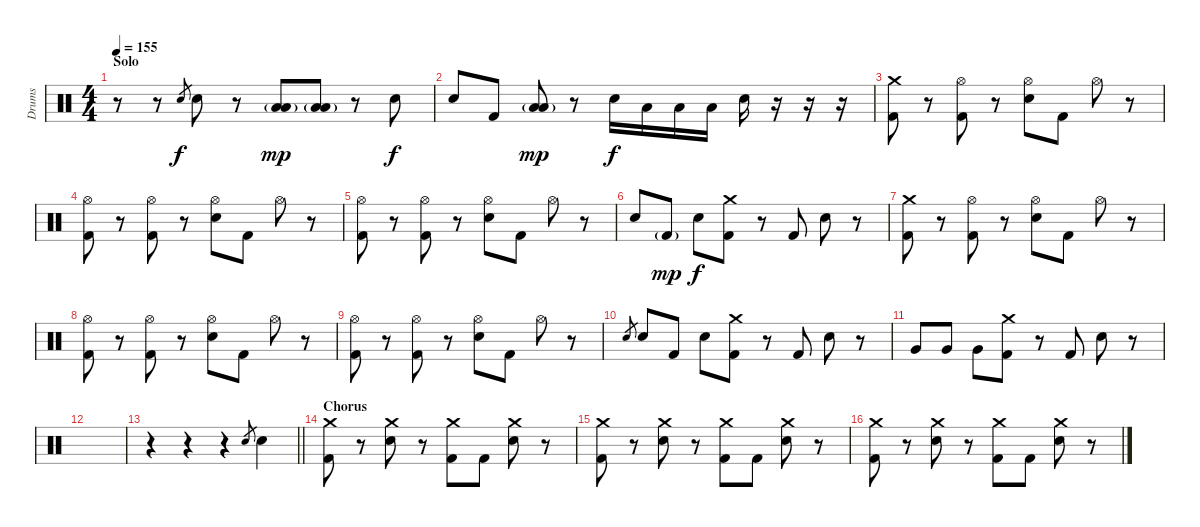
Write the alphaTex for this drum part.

\track ("Drums" "Drums") {instrument percussion}
\staff {score}
\articulation defaults
\ts (4 4)
\section ("" "Solo")
\tempo 155
\clef neutral
\ks c
r.8{dy f} r.8 "Electric Snare (hit)".8{gr} "Electric Snare (hit)".8 r.8 ("Low Tom (hit)"{g} "Low Tom (hit)").8{dy mp} ("Low Tom (hit)"{g} "Low Tom (hit)").8 r.8 "Electric Snare (hit)".8{dy f} |
"Electric Snare (hit)".8 "Kick (hit) 2".8 ("Low Tom (hit)"{g} "Low Tom (hit)").8{dy mp} r.8 "Electric Snare (hit)".16{dy f} "Low Tom (hit)".16{volume 9 balance 16} "Low Tom (hit)".16 "Low Tom (hit)".16 "Electric Snare (hit)".16{volume 16 balance 8} r.16 r.16 r.16 |
("Crash medium (hit)" "Kick (hit) 2").8{volume 16 balance 8} r.8 ("Hi-Hat (open)" "Kick (hit) 2").8 r.8 ("Hi-Hat (open)" "Electric Snare (hit)").8 "Kick (hit) 2".8 "Hi-Hat (open)".8 r.8 |
("Hi-Hat (open)" "Kick (hit) 2").8 r.8 ("Hi-Hat (open)" "Kick (hit) 2").8 r.8 ("Hi-Hat (open)" "Electric Snare (hit)").8 "Kick (hit) 2".8 "Hi-Hat (open)".8 r.8 |
("Hi-Hat (open)" "Kick (hit) 2").8 r.8 ("Hi-Hat (open)" "Kick (hit) 2").8 r.8 ("Hi-Hat (open)" "Electric Snare (hit)").8 "Kick (hit) 2".8 "Hi-Hat (open)".8 r.8 |
"Electric Snare (hit)".8 "Kick (hit) 2"{g}.8{dy mp} "Electric Snare (hit)".8{dy f} ("Crash medium (hit)" "Kick (hit) 2").8 r.8 "Kick (hit) 2".8 "Electric Snare (hit)".8 r.8 |
("Crash medium (hit)" "Kick (hit) 2").8 r.8 ("Hi-Hat (open)" "Kick (hit) 2").8 r.8 ("Hi-Hat (open)" "Electric Snare (hit)").8 "Kick (hit) 2".8 "Hi-Hat (open)".8 r.8 |
("Hi-Hat (open)" "Kick (hit) 2").8 r.8 ("Hi-Hat (open)" "Kick (hit) 2").8 r.8 ("Hi-Hat (open)" "Electric Snare (hit)").8 "Kick (hit) 2".8 "Hi-Hat (open)".8 r.8 |
("Hi-Hat (open)" "Kick (hit) 2").8 r.8 ("Hi-Hat (open)" "Kick (hit) 2").8 r.8 ("Hi-Hat (open)" "Electric Snare (hit)").8 "Kick (hit) 2".8 "Hi-Hat (open)".8 r.8 |
"Electric Snare (hit)".8{gr} "Electric Snare (hit)".8 "Kick (hit) 2".8 "Electric Snare (hit)".8 ("Crash medium (hit)" "Kick (hit) 2").8 r.8 "Kick (hit) 2".8 "Electric Snare (hit)".8 r.8 |
"Very Low Tom (hit)".8 "Very Low Tom (hit)".8 "Very Low Tom (hit)".8 ("Crash medium (hit)" "Kick (hit) 2").8 r.8 "Kick (hit) 2".8 "Electric Snare (hit)".8 r.8 |
|
\barLineRight lightlight
r.4 r.4 r.4 "Electric Snare (hit)".8{gr} "Electric Snare (hit)".4 |
\section ("" "Chorus")
("Crash medium (hit)" "Kick (hit) 2").8 r.8 ("Crash medium (hit)" "Electric Snare (hit)").8 r.8 ("Crash medium (hit)" "Kick (hit) 2").8 "Kick (hit) 2".8 ("Crash medium (hit)" "Electric Snare (hit)").8 r.8 |
("Crash medium (hit)" "Kick (hit) 2").8 r.8 ("Crash medium (hit)" "Electric Snare (hit)").8 r.8 ("Crash medium (hit)" "Kick (hit) 2").8 "Kick (hit) 2".8 ("Crash medium (hit)" "Electric Snare (hit)").8 r.8 |
("Crash medium (hit)" "Kick (hit) 2").8 r.8 ("Crash medium (hit)" "Electric Snare (hit)").8 r.8 ("Crash medium (hit)" "Kick (hit) 2").8 "Kick (hit) 2".8 ("Crash medium (hit)" "Electric Snare (hit)").8 r.8
